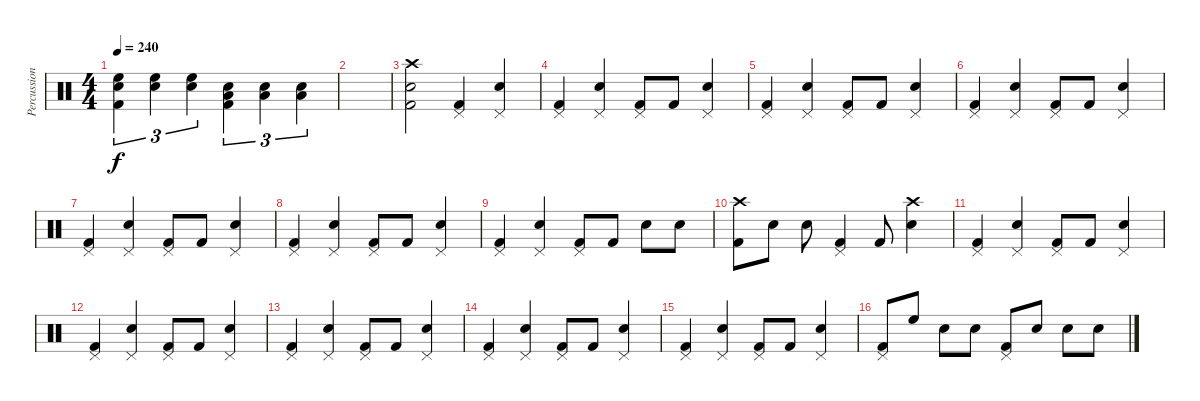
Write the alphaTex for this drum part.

\track ("Percussion" "Percussion") {instrument percussion}
\staff {score}
\articulation defaults
\ts (4 4)
\tempo 240
\clef neutral
\ks c
("High Floor Tom (hit)" "Electric Snare (hit)" "Kick (hit) 2").4{tu (3 2) dy f} ("High Floor Tom (hit)" "Electric Snare (hit)").4{tu (3 2)} ("High Floor Tom (hit)" "Electric Snare (hit)").4{tu (3 2)} ("Low Tom (hit)" "Electric Snare (hit)" "Kick (hit) 2").4{tu (3 2)} ("Low Tom (hit)" "Electric Snare (hit)").4{tu (3 2)} ("Low Tom (hit)" "Electric Snare (hit)").4{tu (3 2)} |
|
("Crash high (hit)" "Electric Snare (hit)" "Kick (hit) 2").2 ("Pedal Hi-Hat (hit)" "Kick (hit) 2").4 ("Pedal Hi-Hat (hit)" "Electric Snare (hit)").4 |
("Pedal Hi-Hat (hit)" "Kick (hit) 2").4 ("Pedal Hi-Hat (hit)" "Electric Snare (hit)").4 ("Pedal Hi-Hat (hit)" "Kick (hit) 2").8 "Kick (hit) 2".8 ("Pedal Hi-Hat (hit)" "Electric Snare (hit)").4 |
("Pedal Hi-Hat (hit)" "Kick (hit) 2").4 ("Pedal Hi-Hat (hit)" "Electric Snare (hit)").4 ("Pedal Hi-Hat (hit)" "Kick (hit) 2").8 "Kick (hit) 2".8 ("Pedal Hi-Hat (hit)" "Electric Snare (hit)").4 |
("Pedal Hi-Hat (hit)" "Kick (hit) 2").4 ("Pedal Hi-Hat (hit)" "Electric Snare (hit)").4 ("Pedal Hi-Hat (hit)" "Kick (hit) 2").8 "Kick (hit) 2".8 ("Pedal Hi-Hat (hit)" "Electric Snare (hit)").4 |
("Pedal Hi-Hat (hit)" "Kick (hit) 2").4 ("Pedal Hi-Hat (hit)" "Electric Snare (hit)").4 ("Pedal Hi-Hat (hit)" "Kick (hit) 2").8 "Kick (hit) 2".8 ("Pedal Hi-Hat (hit)" "Electric Snare (hit)").4 |
("Pedal Hi-Hat (hit)" "Kick (hit) 2").4 ("Pedal Hi-Hat (hit)" "Electric Snare (hit)").4 ("Pedal Hi-Hat (hit)" "Kick (hit) 2").8 "Kick (hit) 2".8 ("Pedal Hi-Hat (hit)" "Electric Snare (hit)").4 |
("Pedal Hi-Hat (hit)" "Kick (hit) 2").4 ("Pedal Hi-Hat (hit)" "Electric Snare (hit)").4 ("Pedal Hi-Hat (hit)" "Kick (hit) 2").8 "Kick (hit) 2".8 "Electric Snare (hit)".8 "Electric Snare (hit)".8 |
("Crash high (hit)" "Kick (hit) 2").8 "Electric Snare (hit)".8 "Electric Snare (hit)".8 ("Pedal Hi-Hat (hit)" "Kick (hit) 2").4 "Kick (hit) 2".8 ("Crash high (hit)" "Electric Snare (hit)").4 |
("Pedal Hi-Hat (hit)" "Kick (hit) 2").4 ("Pedal Hi-Hat (hit)" "Electric Snare (hit)").4 ("Pedal Hi-Hat (hit)" "Kick (hit) 2").8 "Kick (hit) 2".8 ("Pedal Hi-Hat (hit)" "Electric Snare (hit)").4 |
("Pedal Hi-Hat (hit)" "Kick (hit) 2").4 ("Pedal Hi-Hat (hit)" "Electric Snare (hit)").4 ("Pedal Hi-Hat (hit)" "Kick (hit) 2").8 "Kick (hit) 2".8 ("Pedal Hi-Hat (hit)" "Electric Snare (hit)").4 |
("Pedal Hi-Hat (hit)" "Kick (hit) 2").4 ("Pedal Hi-Hat (hit)" "Electric Snare (hit)").4 ("Pedal Hi-Hat (hit)" "Kick (hit) 2").8 "Kick (hit) 2".8 ("Pedal Hi-Hat (hit)" "Electric Snare (hit)").4 |
("Pedal Hi-Hat (hit)" "Kick (hit) 2").4 ("Pedal Hi-Hat (hit)" "Electric Snare (hit)").4 ("Pedal Hi-Hat (hit)" "Kick (hit) 2").8 "Kick (hit) 2".8 ("Pedal Hi-Hat (hit)" "Electric Snare (hit)").4 |
("Pedal Hi-Hat (hit)" "Kick (hit) 2").4 ("Pedal Hi-Hat (hit)" "Electric Snare (hit)").4 ("Pedal Hi-Hat (hit)" "Kick (hit) 2").8 "Kick (hit) 2".8 ("Pedal Hi-Hat (hit)" "Electric Snare (hit)").4 |
("Pedal Hi-Hat (hit)" "Kick (hit) 2").8 "High Floor Tom (hit)".8 "Electric Snare (hit)".8 "Electric Snare (hit)".8 ("Pedal Hi-Hat (hit)" "Kick (hit) 2").8 "Electric Snare (hit)".8 "Electric Snare (hit)".8 "Electric Snare (hit)".8
